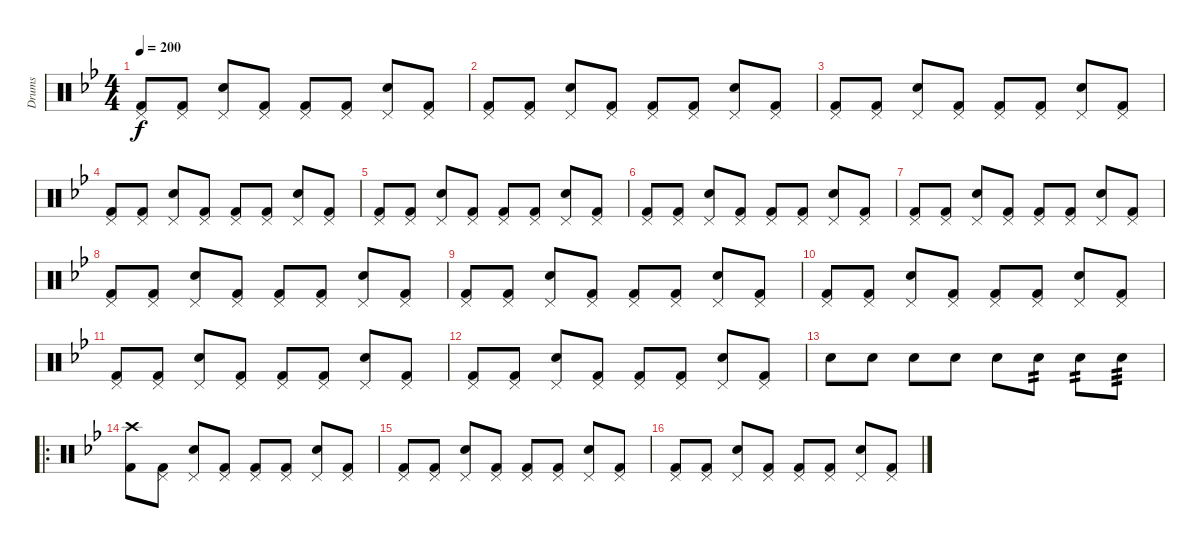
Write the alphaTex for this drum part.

\track ("Drums" "Drums") {instrument percussion}
\staff {score}
\articulation defaults
\ts (4 4)
\tempo 200
\clef neutral
\ks bb
("Pedal Hi-Hat (hit)" "Kick (hit) 2").8{dy f} ("Pedal Hi-Hat (hit)" "Kick (hit) 2").8 ("Pedal Hi-Hat (hit)" "Electric Snare (hit)").8 ("Pedal Hi-Hat (hit)" "Kick (hit) 2").8 ("Pedal Hi-Hat (hit)" "Kick (hit) 2").8 ("Pedal Hi-Hat (hit)" "Kick (hit) 2").8 ("Pedal Hi-Hat (hit)" "Electric Snare (hit)").8 ("Pedal Hi-Hat (hit)" "Kick (hit) 2").8 |
("Pedal Hi-Hat (hit)" "Kick (hit) 2").8 ("Pedal Hi-Hat (hit)" "Kick (hit) 2").8 ("Pedal Hi-Hat (hit)" "Electric Snare (hit)").8 ("Pedal Hi-Hat (hit)" "Kick (hit) 2").8 ("Pedal Hi-Hat (hit)" "Kick (hit) 2").8 ("Pedal Hi-Hat (hit)" "Kick (hit) 2").8 ("Pedal Hi-Hat (hit)" "Electric Snare (hit)").8 ("Pedal Hi-Hat (hit)" "Kick (hit) 2").8 |
("Pedal Hi-Hat (hit)" "Kick (hit) 2").8 ("Pedal Hi-Hat (hit)" "Kick (hit) 2").8 ("Pedal Hi-Hat (hit)" "Electric Snare (hit)").8 ("Pedal Hi-Hat (hit)" "Kick (hit) 2").8 ("Pedal Hi-Hat (hit)" "Kick (hit) 2").8 ("Pedal Hi-Hat (hit)" "Kick (hit) 2").8 ("Pedal Hi-Hat (hit)" "Electric Snare (hit)").8 ("Pedal Hi-Hat (hit)" "Kick (hit) 2").8 |
("Pedal Hi-Hat (hit)" "Kick (hit) 2").8 ("Pedal Hi-Hat (hit)" "Kick (hit) 2").8 ("Pedal Hi-Hat (hit)" "Electric Snare (hit)").8 ("Pedal Hi-Hat (hit)" "Kick (hit) 2").8 ("Pedal Hi-Hat (hit)" "Kick (hit) 2").8 ("Pedal Hi-Hat (hit)" "Kick (hit) 2").8 ("Pedal Hi-Hat (hit)" "Electric Snare (hit)").8 ("Pedal Hi-Hat (hit)" "Kick (hit) 2").8 |
("Pedal Hi-Hat (hit)" "Kick (hit) 2").8 ("Pedal Hi-Hat (hit)" "Kick (hit) 2").8 ("Pedal Hi-Hat (hit)" "Electric Snare (hit)").8 ("Pedal Hi-Hat (hit)" "Kick (hit) 2").8 ("Pedal Hi-Hat (hit)" "Kick (hit) 2").8 ("Pedal Hi-Hat (hit)" "Kick (hit) 2").8 ("Pedal Hi-Hat (hit)" "Electric Snare (hit)").8 ("Pedal Hi-Hat (hit)" "Kick (hit) 2").8 |
("Pedal Hi-Hat (hit)" "Kick (hit) 2").8 ("Pedal Hi-Hat (hit)" "Kick (hit) 2").8 ("Pedal Hi-Hat (hit)" "Electric Snare (hit)").8 ("Pedal Hi-Hat (hit)" "Kick (hit) 2").8 ("Pedal Hi-Hat (hit)" "Kick (hit) 2").8 ("Pedal Hi-Hat (hit)" "Kick (hit) 2").8 ("Pedal Hi-Hat (hit)" "Electric Snare (hit)").8 ("Pedal Hi-Hat (hit)" "Kick (hit) 2").8 |
("Pedal Hi-Hat (hit)" "Kick (hit) 2").8 ("Pedal Hi-Hat (hit)" "Kick (hit) 2").8 ("Pedal Hi-Hat (hit)" "Electric Snare (hit)").8 ("Pedal Hi-Hat (hit)" "Kick (hit) 2").8 ("Pedal Hi-Hat (hit)" "Kick (hit) 2").8 ("Pedal Hi-Hat (hit)" "Kick (hit) 2").8 ("Pedal Hi-Hat (hit)" "Electric Snare (hit)").8 ("Pedal Hi-Hat (hit)" "Kick (hit) 2").8 |
("Pedal Hi-Hat (hit)" "Kick (hit) 2").8 ("Pedal Hi-Hat (hit)" "Kick (hit) 2").8 ("Pedal Hi-Hat (hit)" "Electric Snare (hit)").8 ("Pedal Hi-Hat (hit)" "Kick (hit) 2").8 ("Pedal Hi-Hat (hit)" "Kick (hit) 2").8 ("Pedal Hi-Hat (hit)" "Kick (hit) 2").8 ("Pedal Hi-Hat (hit)" "Electric Snare (hit)").8 ("Pedal Hi-Hat (hit)" "Kick (hit) 2").8 |
("Pedal Hi-Hat (hit)" "Kick (hit) 2").8 ("Pedal Hi-Hat (hit)" "Kick (hit) 2").8 ("Pedal Hi-Hat (hit)" "Electric Snare (hit)").8 ("Pedal Hi-Hat (hit)" "Kick (hit) 2").8 ("Pedal Hi-Hat (hit)" "Kick (hit) 2").8 ("Pedal Hi-Hat (hit)" "Kick (hit) 2").8 ("Pedal Hi-Hat (hit)" "Electric Snare (hit)").8 ("Pedal Hi-Hat (hit)" "Kick (hit) 2").8 |
("Pedal Hi-Hat (hit)" "Kick (hit) 2").8 ("Pedal Hi-Hat (hit)" "Kick (hit) 2").8 ("Pedal Hi-Hat (hit)" "Electric Snare (hit)").8 ("Pedal Hi-Hat (hit)" "Kick (hit) 2").8 ("Pedal Hi-Hat (hit)" "Kick (hit) 2").8 ("Pedal Hi-Hat (hit)" "Kick (hit) 2").8 ("Pedal Hi-Hat (hit)" "Electric Snare (hit)").8 ("Pedal Hi-Hat (hit)" "Kick (hit) 2").8 |
("Pedal Hi-Hat (hit)" "Kick (hit) 2").8 ("Pedal Hi-Hat (hit)" "Kick (hit) 2").8 ("Pedal Hi-Hat (hit)" "Electric Snare (hit)").8 ("Pedal Hi-Hat (hit)" "Kick (hit) 2").8 ("Pedal Hi-Hat (hit)" "Kick (hit) 2").8 ("Pedal Hi-Hat (hit)" "Kick (hit) 2").8 ("Pedal Hi-Hat (hit)" "Electric Snare (hit)").8 ("Pedal Hi-Hat (hit)" "Kick (hit) 2").8 |
("Pedal Hi-Hat (hit)" "Kick (hit) 2").8 ("Pedal Hi-Hat (hit)" "Kick (hit) 2").8 ("Pedal Hi-Hat (hit)" "Electric Snare (hit)").8 ("Pedal Hi-Hat (hit)" "Kick (hit) 2").8 ("Pedal Hi-Hat (hit)" "Kick (hit) 2").8 ("Pedal Hi-Hat (hit)" "Kick (hit) 2").8 ("Pedal Hi-Hat (hit)" "Electric Snare (hit)").8 ("Pedal Hi-Hat (hit)" "Kick (hit) 2").8 |
"Electric Snare (hit)".8 "Electric Snare (hit)".8 "Electric Snare (hit)".8 "Electric Snare (hit)".8 "Electric Snare (hit)".8 "Electric Snare (hit)".8{tp 2} "Electric Snare (hit)".8{tp 2} "Electric Snare (hit)".8{tp 3} |
\ro
("Crash high (hit)" "Kick (hit) 2").8 ("Pedal Hi-Hat (hit)" "Kick (hit) 2").8 ("Pedal Hi-Hat (hit)" "Electric Snare (hit)").8 ("Pedal Hi-Hat (hit)" "Kick (hit) 2").8 ("Pedal Hi-Hat (hit)" "Kick (hit) 2").8 ("Pedal Hi-Hat (hit)" "Kick (hit) 2").8 ("Pedal Hi-Hat (hit)" "Electric Snare (hit)").8 ("Pedal Hi-Hat (hit)" "Kick (hit) 2").8 |
("Pedal Hi-Hat (hit)" "Kick (hit) 2").8 ("Pedal Hi-Hat (hit)" "Kick (hit) 2").8 ("Pedal Hi-Hat (hit)" "Electric Snare (hit)").8 ("Pedal Hi-Hat (hit)" "Kick (hit) 2").8 ("Pedal Hi-Hat (hit)" "Kick (hit) 2").8 ("Pedal Hi-Hat (hit)" "Kick (hit) 2").8 ("Pedal Hi-Hat (hit)" "Electric Snare (hit)").8 ("Pedal Hi-Hat (hit)" "Kick (hit) 2").8 |
("Pedal Hi-Hat (hit)" "Kick (hit) 2").8 ("Pedal Hi-Hat (hit)" "Kick (hit) 2").8 ("Pedal Hi-Hat (hit)" "Electric Snare (hit)").8 ("Pedal Hi-Hat (hit)" "Kick (hit) 2").8 ("Pedal Hi-Hat (hit)" "Kick (hit) 2").8 ("Pedal Hi-Hat (hit)" "Kick (hit) 2").8 ("Pedal Hi-Hat (hit)" "Electric Snare (hit)").8 ("Pedal Hi-Hat (hit)" "Kick (hit) 2").8
